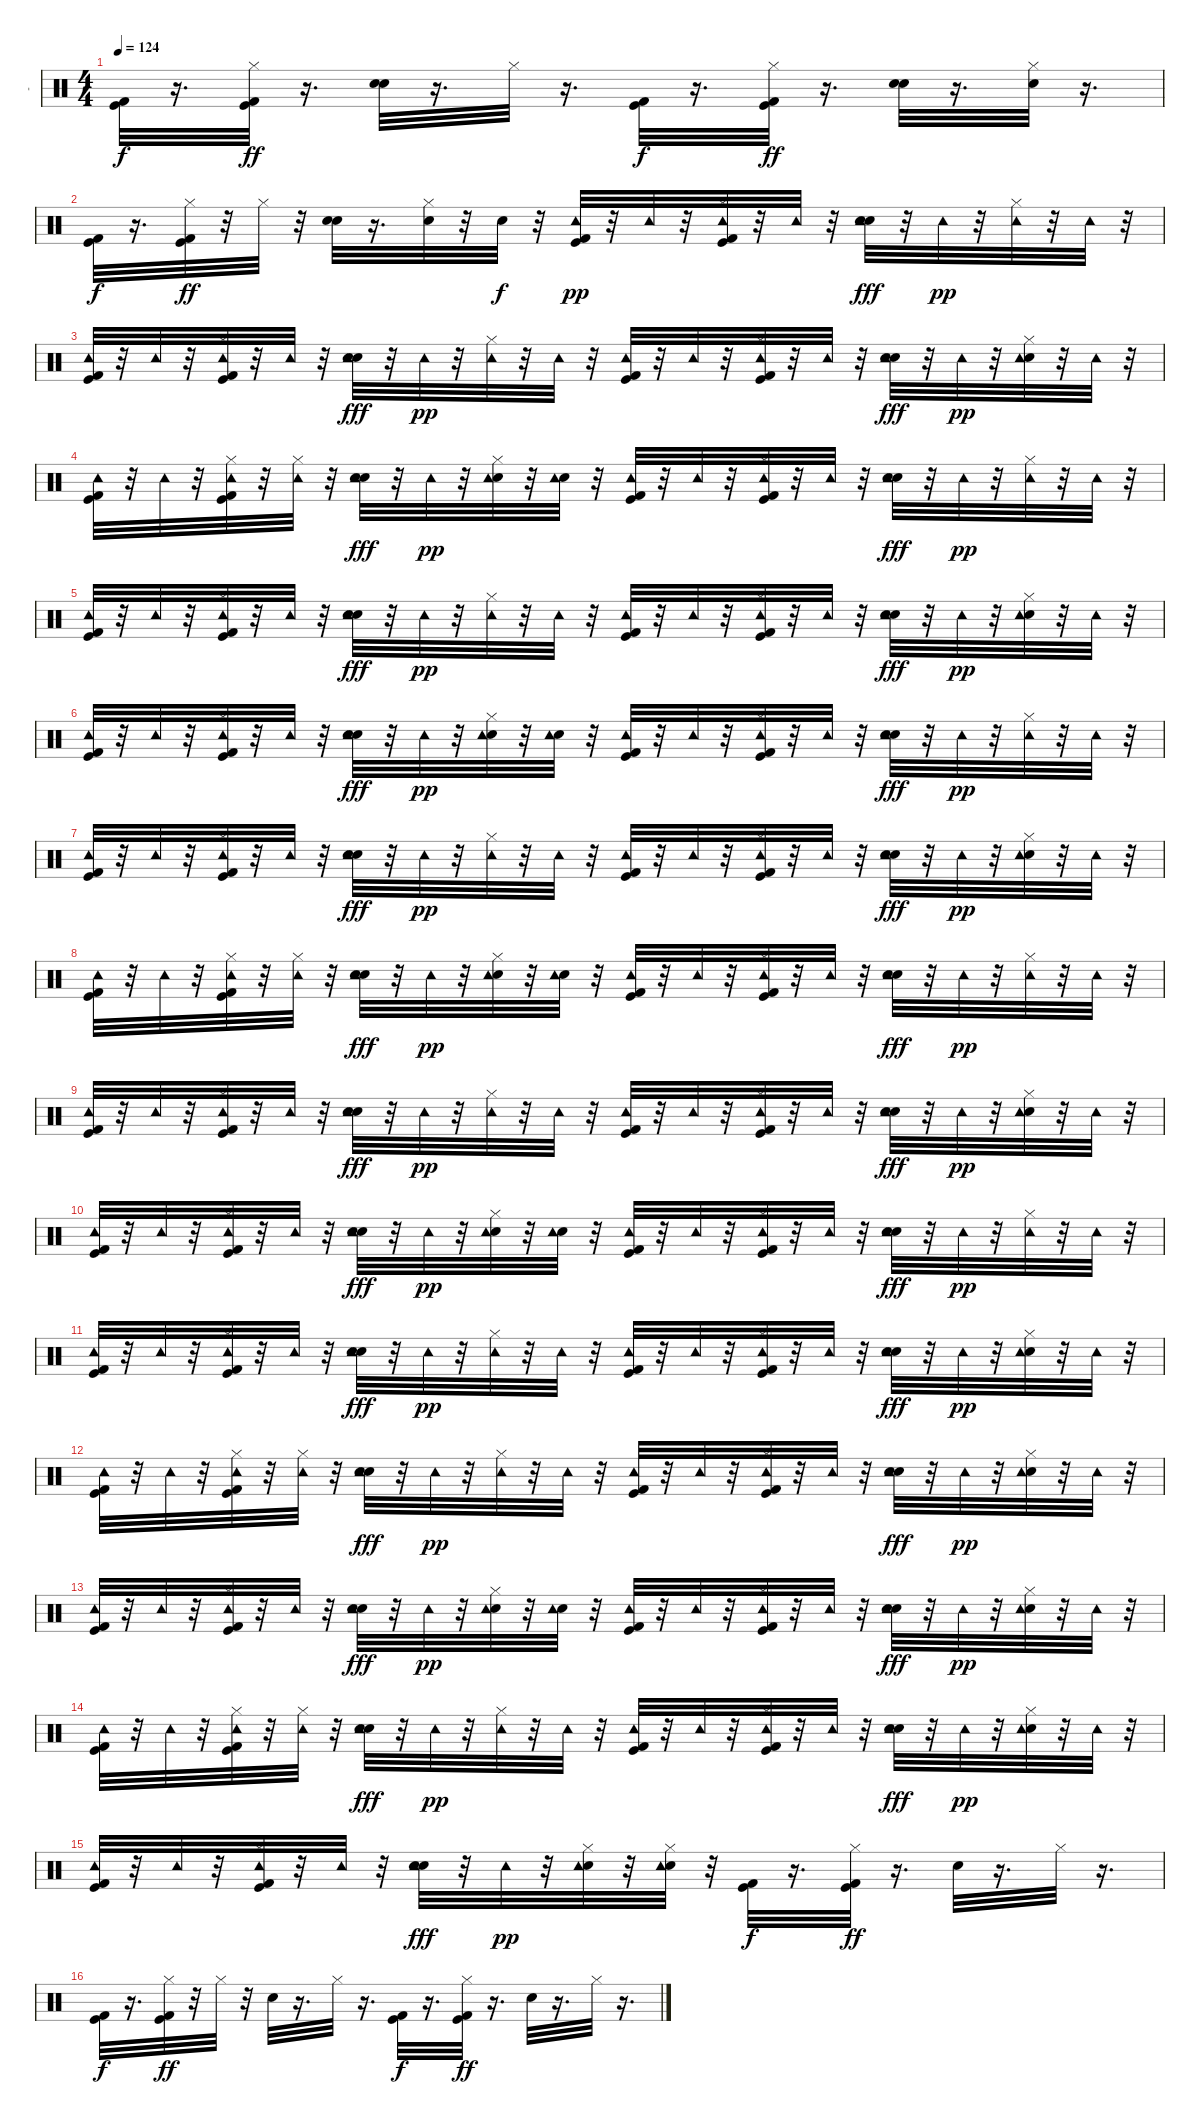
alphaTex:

\track ("-" "-") {instrument percussion}
\staff {score}
\articulation defaults
\ts (4 4)
\tempo 124
\clef neutral
\ks c
("Kick (hit)" "Kick (hit) 2").32{dy f} r.16{d} ("Kick (hit)" "Kick (hit) 2" "Hi-Hat (closed)").32{dy ff} r.16{d} ("Snare (hit) 2" "Hand Clap (hit)").32 r.16{d} "Hi-Hat (closed)".32 r.16{d} ("Kick (hit)" "Kick (hit) 2").32{dy f} r.16{d} ("Kick (hit)" "Kick (hit) 2" "Hi-Hat (closed)").32{dy ff} r.16{d} ("Snare (hit) 2" "Hand Clap (hit)").32 r.16{d} ("Hand Clap (hit)" "Hi-Hat (closed)").32 r.16{d} |
("Kick (hit)" "Kick (hit) 2").32{dy f} r.16{d} ("Kick (hit)" "Kick (hit) 2" "Hi-Hat (closed)").32{dy ff} r.32 "Hi-Hat (closed)".32 r.32 ("Snare (hit) 2" "Hand Clap (hit)").32 r.16{d} ("Snare (hit) 2" "Hi-Hat (closed)").32 r.32 "Snare (hit) 2".32{dy f} r.32 ("Kick (hit)" "Kick (hit) 2" "Tambourine (hit)").32{dy pp} r.32 "Tambourine (hit)".32 r.32 ("Kick (hit)" "Kick (hit) 2" "Hi-Hat (closed)" "Tambourine (hit)").32 r.32 "Tambourine (hit)".32 r.32 ("Snare (hit) 2" "Hand Clap (hit)" "Tambourine (hit)").32{dy fff} r.32 "Tambourine (hit)".32{dy pp} r.32 ("Hi-Hat (closed)" "Tambourine (hit)").32 r.32 "Tambourine (hit)".32 r.32 |
("Kick (hit)" "Kick (hit) 2" "Tambourine (hit)").32 r.32 "Tambourine (hit)".32 r.32 ("Kick (hit)" "Kick (hit) 2" "Hi-Hat (closed)" "Tambourine (hit)").32 r.32 "Tambourine (hit)".32 r.32 ("Snare (hit) 2" "Hand Clap (hit)" "Tambourine (hit)").32{dy fff} r.32 "Tambourine (hit)".32{dy pp} r.32 ("Hi-Hat (closed)" "Tambourine (hit)").32 r.32 "Tambourine (hit)".32 r.32 ("Kick (hit)" "Kick (hit) 2" "Tambourine (hit)").32 r.32 "Tambourine (hit)".32 r.32 ("Kick (hit)" "Kick (hit) 2" "Hi-Hat (closed)" "Tambourine (hit)").32 r.32 "Tambourine (hit)".32 r.32 ("Snare (hit) 2" "Hand Clap (hit)" "Tambourine (hit)").32{dy fff} r.32 "Tambourine (hit)".32{dy pp} r.32 ("Hand Clap (hit)" "Hi-Hat (closed)" "Tambourine (hit)").32 r.32 "Tambourine (hit)".32 r.32 |
("Kick (hit)" "Kick (hit) 2" "Tambourine (hit)").32 r.32 "Tambourine (hit)".32 r.32 ("Kick (hit)" "Kick (hit) 2" "Hi-Hat (closed)" "Tambourine (hit)").32 r.32 ("Hi-Hat (closed)" "Tambourine (hit)").32 r.32 ("Snare (hit) 2" "Hand Clap (hit)" "Tambourine (hit)").32{dy fff} r.32 "Tambourine (hit)".32{dy pp} r.32 ("Snare (hit) 2" "Hi-Hat (closed)" "Tambourine (hit)").32 r.32 ("Snare (hit) 2" "Tambourine (hit)").32 r.32 ("Kick (hit)" "Kick (hit) 2" "Tambourine (hit)").32 r.32 "Tambourine (hit)".32 r.32 ("Kick (hit)" "Kick (hit) 2" "Hi-Hat (closed)" "Tambourine (hit)").32 r.32 "Tambourine (hit)".32 r.32 ("Snare (hit) 2" "Hand Clap (hit)" "Tambourine (hit)").32{dy fff} r.32 "Tambourine (hit)".32{dy pp} r.32 ("Hi-Hat (closed)" "Tambourine (hit)").32 r.32 "Tambourine (hit)".32 r.32 |
("Kick (hit)" "Kick (hit) 2" "Tambourine (hit)").32 r.32 "Tambourine (hit)".32 r.32 ("Kick (hit)" "Kick (hit) 2" "Hi-Hat (closed)" "Tambourine (hit)").32 r.32 "Tambourine (hit)".32 r.32 ("Snare (hit) 2" "Hand Clap (hit)" "Tambourine (hit)").32{dy fff} r.32 "Tambourine (hit)".32{dy pp} r.32 ("Hi-Hat (closed)" "Tambourine (hit)").32 r.32 "Tambourine (hit)".32 r.32 ("Kick (hit)" "Kick (hit) 2" "Tambourine (hit)").32 r.32 "Tambourine (hit)".32 r.32 ("Kick (hit)" "Kick (hit) 2" "Hi-Hat (closed)" "Tambourine (hit)").32 r.32 "Tambourine (hit)".32 r.32 ("Snare (hit) 2" "Hand Clap (hit)" "Tambourine (hit)").32{dy fff} r.32 "Tambourine (hit)".32{dy pp} r.32 ("Hand Clap (hit)" "Hi-Hat (closed)" "Tambourine (hit)").32 r.32 "Tambourine (hit)".32 r.32 |
("Kick (hit)" "Kick (hit) 2" "Tambourine (hit)").32 r.32 "Tambourine (hit)".32 r.32 ("Kick (hit)" "Kick (hit) 2" "Hi-Hat (closed)" "Tambourine (hit)").32 r.32 "Tambourine (hit)".32 r.32 ("Snare (hit) 2" "Hand Clap (hit)" "Tambourine (hit)").32{dy fff} r.32 "Tambourine (hit)".32{dy pp} r.32 ("Snare (hit) 2" "Hi-Hat (closed)" "Tambourine (hit)").32 r.32 ("Snare (hit) 2" "Tambourine (hit)").32 r.32 ("Kick (hit)" "Kick (hit) 2" "Tambourine (hit)").32 r.32 "Tambourine (hit)".32 r.32 ("Kick (hit)" "Kick (hit) 2" "Hi-Hat (closed)" "Tambourine (hit)").32 r.32 "Tambourine (hit)".32 r.32 ("Snare (hit) 2" "Hand Clap (hit)" "Tambourine (hit)").32{dy fff} r.32 "Tambourine (hit)".32{dy pp} r.32 ("Hi-Hat (closed)" "Tambourine (hit)").32 r.32 "Tambourine (hit)".32 r.32 |
("Kick (hit)" "Kick (hit) 2" "Tambourine (hit)").32 r.32 "Tambourine (hit)".32 r.32 ("Kick (hit)" "Kick (hit) 2" "Hi-Hat (closed)" "Tambourine (hit)").32 r.32 "Tambourine (hit)".32 r.32 ("Snare (hit) 2" "Hand Clap (hit)" "Tambourine (hit)").32{dy fff} r.32 "Tambourine (hit)".32{dy pp} r.32 ("Hi-Hat (closed)" "Tambourine (hit)").32 r.32 "Tambourine (hit)".32 r.32 ("Kick (hit)" "Kick (hit) 2" "Tambourine (hit)").32 r.32 "Tambourine (hit)".32 r.32 ("Kick (hit)" "Kick (hit) 2" "Hi-Hat (closed)" "Tambourine (hit)").32 r.32 "Tambourine (hit)".32 r.32 ("Snare (hit) 2" "Hand Clap (hit)" "Tambourine (hit)").32{dy fff} r.32 "Tambourine (hit)".32{dy pp} r.32 ("Hand Clap (hit)" "Hi-Hat (closed)" "Tambourine (hit)").32 r.32 "Tambourine (hit)".32 r.32 |
("Kick (hit)" "Kick (hit) 2" "Tambourine (hit)").32 r.32 "Tambourine (hit)".32 r.32 ("Kick (hit)" "Kick (hit) 2" "Hi-Hat (closed)" "Tambourine (hit)").32 r.32 ("Hi-Hat (closed)" "Tambourine (hit)").32 r.32 ("Snare (hit) 2" "Hand Clap (hit)" "Tambourine (hit)").32{dy fff} r.32 "Tambourine (hit)".32{dy pp} r.32 ("Snare (hit) 2" "Hi-Hat (closed)" "Tambourine (hit)").32 r.32 ("Snare (hit) 2" "Tambourine (hit)").32 r.32 ("Kick (hit)" "Kick (hit) 2" "Tambourine (hit)").32 r.32 "Tambourine (hit)".32 r.32 ("Kick (hit)" "Kick (hit) 2" "Hi-Hat (closed)" "Tambourine (hit)").32 r.32 "Tambourine (hit)".32 r.32 ("Snare (hit) 2" "Hand Clap (hit)" "Tambourine (hit)").32{dy fff} r.32 "Tambourine (hit)".32{dy pp} r.32 ("Hi-Hat (closed)" "Tambourine (hit)").32 r.32 "Tambourine (hit)".32 r.32 |
("Kick (hit)" "Kick (hit) 2" "Tambourine (hit)").32 r.32 "Tambourine (hit)".32 r.32 ("Kick (hit)" "Kick (hit) 2" "Hi-Hat (closed)" "Tambourine (hit)").32 r.32 "Tambourine (hit)".32 r.32 ("Snare (hit) 2" "Hand Clap (hit)" "Tambourine (hit)").32{dy fff} r.32 "Tambourine (hit)".32{dy pp} r.32 ("Hi-Hat (closed)" "Tambourine (hit)").32 r.32 "Tambourine (hit)".32 r.32 ("Kick (hit)" "Kick (hit) 2" "Tambourine (hit)").32 r.32 "Tambourine (hit)".32 r.32 ("Kick (hit)" "Kick (hit) 2" "Hi-Hat (closed)" "Tambourine (hit)").32 r.32 "Tambourine (hit)".32 r.32 ("Snare (hit) 2" "Hand Clap (hit)" "Tambourine (hit)").32{dy fff} r.32 "Tambourine (hit)".32{dy pp} r.32 ("Hand Clap (hit)" "Hi-Hat (closed)" "Tambourine (hit)").32 r.32 "Tambourine (hit)".32 r.32 |
("Kick (hit)" "Kick (hit) 2" "Tambourine (hit)").32 r.32 "Tambourine (hit)".32 r.32 ("Kick (hit)" "Kick (hit) 2" "Hi-Hat (closed)" "Tambourine (hit)").32 r.32 "Tambourine (hit)".32 r.32 ("Snare (hit) 2" "Hand Clap (hit)" "Tambourine (hit)").32{dy fff} r.32 "Tambourine (hit)".32{dy pp} r.32 ("Snare (hit) 2" "Hi-Hat (closed)" "Tambourine (hit)").32 r.32 ("Snare (hit) 2" "Tambourine (hit)").32 r.32 ("Kick (hit)" "Kick (hit) 2" "Tambourine (hit)").32 r.32 "Tambourine (hit)".32 r.32 ("Kick (hit)" "Kick (hit) 2" "Hi-Hat (closed)" "Tambourine (hit)").32 r.32 "Tambourine (hit)".32 r.32 ("Snare (hit) 2" "Hand Clap (hit)" "Tambourine (hit)").32{dy fff} r.32 "Tambourine (hit)".32{dy pp} r.32 ("Hi-Hat (closed)" "Tambourine (hit)").32 r.32 "Tambourine (hit)".32 r.32 |
("Kick (hit)" "Kick (hit) 2" "Tambourine (hit)").32 r.32 "Tambourine (hit)".32 r.32 ("Kick (hit)" "Kick (hit) 2" "Hi-Hat (closed)" "Tambourine (hit)").32 r.32 "Tambourine (hit)".32 r.32 ("Snare (hit) 2" "Hand Clap (hit)" "Tambourine (hit)").32{dy fff} r.32 "Tambourine (hit)".32{dy pp} r.32 ("Hi-Hat (closed)" "Tambourine (hit)").32 r.32 "Tambourine (hit)".32 r.32 ("Kick (hit)" "Kick (hit) 2" "Tambourine (hit)").32 r.32 "Tambourine (hit)".32 r.32 ("Kick (hit)" "Kick (hit) 2" "Hi-Hat (closed)" "Tambourine (hit)").32 r.32 "Tambourine (hit)".32 r.32 ("Snare (hit) 2" "Hand Clap (hit)" "Tambourine (hit)").32{dy fff} r.32 "Tambourine (hit)".32{dy pp} r.32 ("Hand Clap (hit)" "Hi-Hat (closed)" "Tambourine (hit)").32 r.32 "Tambourine (hit)".32 r.32 |
("Kick (hit)" "Kick (hit) 2" "Tambourine (hit)").32 r.32 "Tambourine (hit)".32 r.32 ("Kick (hit)" "Kick (hit) 2" "Hi-Hat (closed)" "Tambourine (hit)").32 r.32 ("Hi-Hat (closed)" "Tambourine (hit)").32 r.32 ("Snare (hit) 2" "Hand Clap (hit)" "Tambourine (hit)").32{dy fff} r.32 "Tambourine (hit)".32{dy pp} r.32 ("Hi-Hat (closed)" "Tambourine (hit)").32 r.32 "Tambourine (hit)".32 r.32 ("Kick (hit)" "Kick (hit) 2" "Tambourine (hit)").32 r.32 "Tambourine (hit)".32 r.32 ("Kick (hit)" "Kick (hit) 2" "Hi-Hat (closed)" "Tambourine (hit)").32 r.32 "Tambourine (hit)".32 r.32 ("Snare (hit) 2" "Hand Clap (hit)" "Tambourine (hit)").32{dy fff} r.32 "Tambourine (hit)".32{dy pp} r.32 ("Hand Clap (hit)" "Hi-Hat (closed)" "Tambourine (hit)").32 r.32 "Tambourine (hit)".32 r.32 |
("Kick (hit)" "Kick (hit) 2" "Tambourine (hit)").32 r.32 "Tambourine (hit)".32 r.32 ("Kick (hit)" "Kick (hit) 2" "Hi-Hat (closed)" "Tambourine (hit)").32 r.32 "Tambourine (hit)".32 r.32 ("Snare (hit) 2" "Hand Clap (hit)" "Tambourine (hit)").32{dy fff} r.32 "Tambourine (hit)".32{dy pp} r.32 ("Snare (hit) 2" "Hi-Hat (closed)" "Tambourine (hit)").32 r.32 ("Snare (hit) 2" "Tambourine (hit)").32 r.32 ("Kick (hit)" "Kick (hit) 2" "Tambourine (hit)").32 r.32 "Tambourine (hit)".32 r.32 ("Kick (hit)" "Kick (hit) 2" "Hi-Hat (closed)" "Tambourine (hit)").32 r.32 "Tambourine (hit)".32 r.32 ("Snare (hit) 2" "Hand Clap (hit)" "Tambourine (hit)").32{dy fff} r.32 "Tambourine (hit)".32{dy pp} r.32 ("Hand Clap (hit)" "Hi-Hat (closed)" "Tambourine (hit)").32 r.32 "Tambourine (hit)".32 r.32 |
("Kick (hit)" "Kick (hit) 2" "Tambourine (hit)").32 r.32 "Tambourine (hit)".32 r.32 ("Kick (hit)" "Kick (hit) 2" "Hi-Hat (closed)" "Tambourine (hit)").32 r.32 ("Hi-Hat (closed)" "Tambourine (hit)").32 r.32 ("Snare (hit) 2" "Hand Clap (hit)" "Tambourine (hit)").32{dy fff} r.32 "Tambourine (hit)".32{dy pp} r.32 ("Hi-Hat (closed)" "Tambourine (hit)").32 r.32 "Tambourine (hit)".32 r.32 ("Kick (hit)" "Kick (hit) 2" "Tambourine (hit)").32 r.32 "Tambourine (hit)".32 r.32 ("Kick (hit)" "Kick (hit) 2" "Hi-Hat (closed)" "Tambourine (hit)").32 r.32 "Tambourine (hit)".32 r.32 ("Snare (hit) 2" "Hand Clap (hit)" "Tambourine (hit)").32{dy fff} r.32 "Tambourine (hit)".32{dy pp} r.32 ("Hand Clap (hit)" "Hi-Hat (closed)" "Tambourine (hit)").32 r.32 "Tambourine (hit)".32 r.32 |
("Kick (hit)" "Kick (hit) 2" "Tambourine (hit)").32 r.32 "Tambourine (hit)".32 r.32 ("Kick (hit)" "Kick (hit) 2" "Hi-Hat (closed)" "Tambourine (hit)").32 r.32 "Tambourine (hit)".32 r.32 ("Snare (hit) 2" "Hand Clap (hit)" "Tambourine (hit)").32{dy fff} r.32 "Tambourine (hit)".32{dy pp} r.32 ("Snare (hit) 2" "Hi-Hat (closed)" "Tambourine (hit)").32 r.32 ("Snare (hit) 2" "Hi-Hat (closed)" "Tambourine (hit)").32 r.32 ("Kick (hit)" "Kick (hit) 2").32{dy f} r.16{d} ("Kick (hit)" "Kick (hit) 2" "Hi-Hat (closed)").32{dy ff} r.16{d} "Snare (hit) 2".32 r.16{d} "Hi-Hat (closed)".32 r.16{d} |
("Kick (hit)" "Kick (hit) 2").32{dy f} r.16{d} ("Kick (hit)" "Kick (hit) 2" "Hi-Hat (closed)").32{dy ff} r.32 "Hi-Hat (closed)".32 r.32 "Snare (hit) 2".32 r.16{d} "Hi-Hat (closed)".32 r.16{d} ("Kick (hit)" "Kick (hit) 2").32{dy f} r.16{d} ("Kick (hit)" "Kick (hit) 2" "Hi-Hat (closed)").32{dy ff} r.16{d} "Snare (hit) 2".32 r.16{d} "Hi-Hat (closed)".32 r.16{d}
